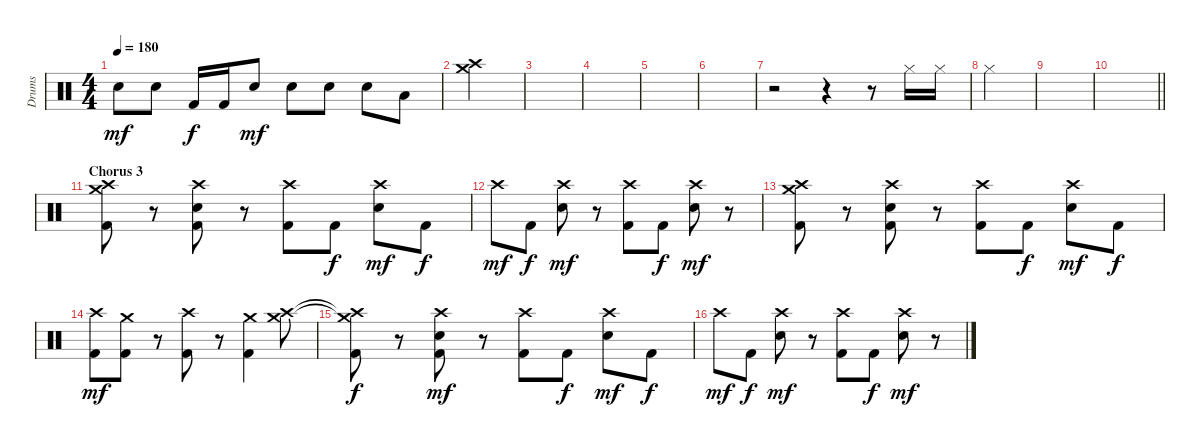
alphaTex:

\track ("Drums" "Drums") {instrument percussion}
\staff {score}
\articulation defaults
\ts (4 4)
\tempo 180
\clef neutral
\ks c "Electric Snare (hit)".8{dy mf} "Electric Snare (hit)".8 "Kick (hit) 2".16{dy f} "Kick (hit) 2".16 "Electric Snare (hit)".8{dy mf} "Electric Snare (hit)".8 "Electric Snare (hit)".8 "Electric Snare (hit)".8 "Low Tom (hit)".8
|
("Crash high (hit)" "Crash medium (hit)").4 |
|
|
|
|
r.2 r.4 r.8 "Hi-Hat (closed)".16 "Hi-Hat (closed)".16 |
"Hi-Hat (closed)".4 |
|
\barLineRight lightlight
|
\section ("" "Chorus 3")
("Crash high (hit)" "Crash medium (hit)" "Kick (hit) 2").8 r.8 ("Crash high (hit)" "Electric Snare (hit)" "Kick (hit) 2").8 r.8 ("Crash high (hit)" "Kick (hit) 2").8 "Kick (hit) 2".8{dy f} ("Crash high (hit)" "Electric Snare (hit)").8{dy mf} "Kick (hit) 2".8{dy f} |
"Crash high (hit)".8{dy mf} "Kick (hit) 2".8{dy f} ("Crash high (hit)" "Electric Snare (hit)").8{dy mf} r.8 ("Crash high (hit)" "Kick (hit) 2").8 "Kick (hit) 2".8{dy f} ("Crash high (hit)" "Electric Snare (hit)").8{dy mf} r.8 |
("Crash high (hit)" "Crash medium (hit)" "Kick (hit) 2").8 r.8 ("Crash high (hit)" "Electric Snare (hit)" "Kick (hit) 2").8 r.8 ("Crash high (hit)" "Kick (hit) 2").8 "Kick (hit) 2".8{dy f} ("Crash high (hit)" "Electric Snare (hit)").8{dy mf} "Kick (hit) 2".8{dy f} |
("Crash high (hit)" "Kick (hit) 2").8{dy mf} ("Crash medium (hit)" "Kick (hit) 2").8 r.8 ("Crash high (hit)" "Kick (hit) 2").8 r.8 ("Crash medium (hit)" "Kick (hit) 2").4 ("Crash high (hit)" "Crash medium (hit)").8 |
("Crash high (hit)"{t} "Crash medium (hit)"{t} "Kick (hit) 2").8{dy f} r.8 ("Crash high (hit)" "Electric Snare (hit)" "Kick (hit) 2").8{dy mf} r.8 ("Crash high (hit)" "Kick (hit) 2").8 "Kick (hit) 2".8{dy f} ("Crash high (hit)" "Electric Snare (hit)").8{dy mf} "Kick (hit) 2".8{dy f} |
"Crash high (hit)".8{dy mf} "Kick (hit) 2".8{dy f} ("Crash high (hit)" "Electric Snare (hit)").8{dy mf} r.8 ("Crash high (hit)" "Kick (hit) 2").8 "Kick (hit) 2".8{dy f} ("Crash high (hit)" "Electric Snare (hit)").8{dy mf} r.8
